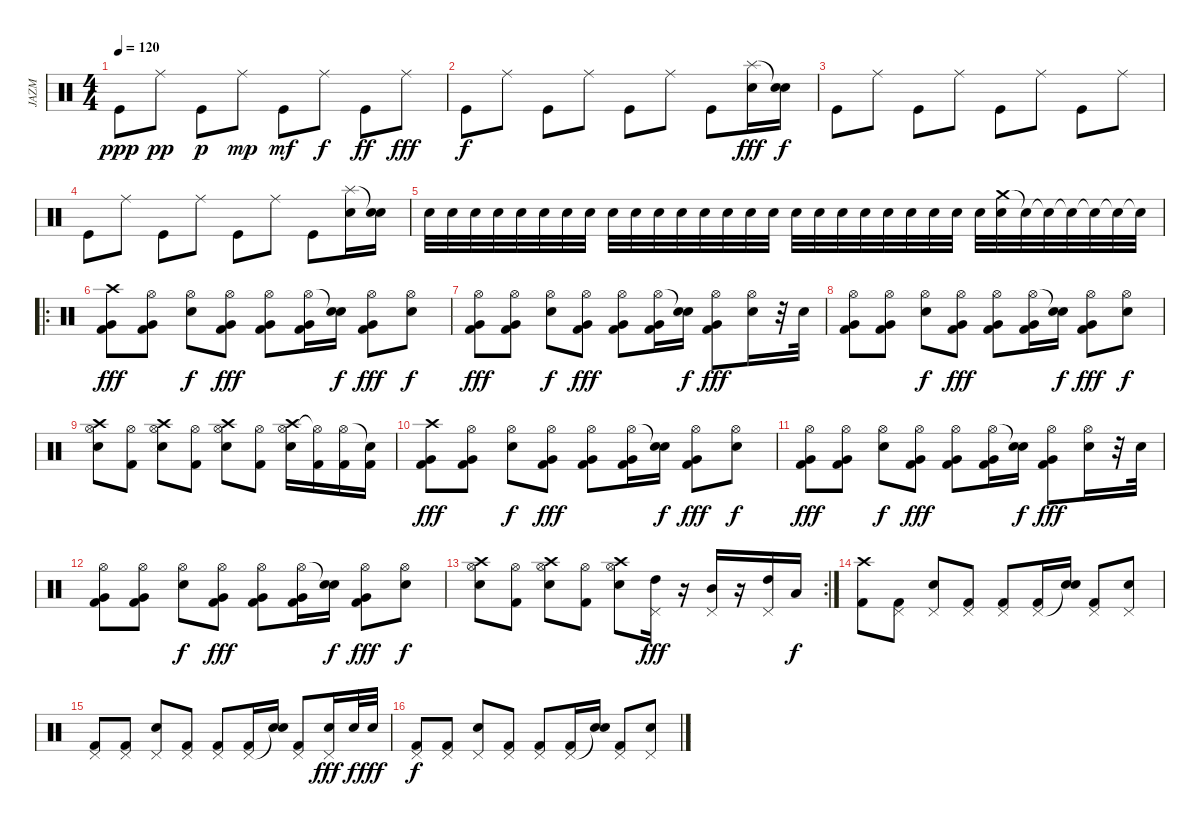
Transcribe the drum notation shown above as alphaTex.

\track ("JAZM" "JAZM") {instrument percussion}
\staff {score}
\articulation defaults
\ts (4 4)
\tempo 120
\clef neutral
\ks c "Kick (hit)".8{dy ppp} "Ride (middle)".8{dy pp} "Kick (hit)".8{dy p} "Ride (middle)".8{dy mp} "Kick (hit)".8{dy mf} "Ride (middle)".8{dy f} "Kick (hit)".8{dy ff} "Ride (middle)".8{dy fff}
|
"Kick (hit)".8{dy f} "Ride (middle)".8 "Kick (hit)".8 "Ride (middle)".8 "Kick (hit)".8 "Ride (middle)".8 "Kick (hit)".8 ("Splash (hit)" "Snare (hit) 2").16{dy fff} ("Snare (hit)"{t} "Snare (hit) 2").16{dy f} |
"Kick (hit)".8 "Ride (middle)".8 "Kick (hit)".8 "Ride (middle)".8 "Kick (hit)".8 "Ride (middle)".8 "Kick (hit)".8 "Ride (middle)".8 |
"Kick (hit)".8 "Ride (middle)".8 "Kick (hit)".8 "Ride (middle)".8 "Kick (hit)".8 "Ride (middle)".8 "Kick (hit)".8 ("Splash (hit)" "Snare (hit) 2").16 ("Snare (hit)"{t} "Snare (hit) 2").16 |
"Snare (hit) 2".32 "Snare (hit) 2".32 "Snare (hit) 2".32 "Snare (hit) 2".32 "Snare (hit) 2".32 "Snare (hit) 2".32 "Snare (hit) 2".32 "Snare (hit) 2".32 "Snare (hit) 2".32 "Snare (hit) 2".32 "Snare (hit) 2".32 "Snare (hit) 2".32 "Snare (hit) 2".32 "Snare (hit) 2".32 "Snare (hit) 2".32 "Snare (hit) 2".32 "Snare (hit) 2".32 "Snare (hit) 2".32 "Snare (hit) 2".32 "Snare (hit) 2".32 "Snare (hit) 2".32 "Snare (hit) 2".32 "Snare (hit) 2".32 "Snare (hit) 2".32 "Snare (hit) 2".32 ("Crash medium (hit)" "Snare (hit) 2").32 "Snare (hit)"{t}.32 "Snare (hit)"{t}.32 "Snare (hit)"{t}.32 "Snare (hit)"{t}.32 "Snare (hit)"{t}.32 "Snare (hit)"{t}.32 |
\ro
("Crash high (hit)" "Very Low Tom (hit)" "Kick (hit) 2").8{dy fff} ("Hi-Hat (open)" "Very Low Tom (hit)" "Kick (hit) 2").8 ("Hi-Hat (open)" "Electric Snare (hit)").8{dy f} ("Hi-Hat (open)" "Very Low Tom (hit)" "Kick (hit) 2").8{dy fff} ("Hi-Hat (open)" "Very Low Tom (hit)" "Kick (hit) 2").8 ("Hi-Hat (open)" "Very Low Tom (hit)" "Kick (hit) 2").16 ("Snare (hit)"{t} "Electric Snare (hit)").16{dy f} ("Hi-Hat (open)" "Very Low Tom (hit)" "Kick (hit) 2").8{dy fff} ("Hi-Hat (open)" "Electric Snare (hit)").8{dy f} |
("Hi-Hat (open)" "Very Low Tom (hit)" "Kick (hit) 2").8{dy fff} ("Hi-Hat (open)" "Very Low Tom (hit)" "Kick (hit) 2").8 ("Hi-Hat (open)" "Electric Snare (hit)").8{dy f} ("Hi-Hat (open)" "Very Low Tom (hit)" "Kick (hit) 2").8{dy fff} ("Hi-Hat (open)" "Very Low Tom (hit)" "Kick (hit) 2").8 ("Hi-Hat (open)" "Very Low Tom (hit)" "Kick (hit) 2").16 ("Snare (hit)"{t} "Electric Snare (hit)").16{dy f} ("Hi-Hat (open)" "Very Low Tom (hit)" "Kick (hit) 2").8{dy fff} ("Hi-Hat (open)" "Electric Snare (hit)").16 r.32 "Electric Snare (hit)".32 |
("Hi-Hat (open)" "Very Low Tom (hit)" "Kick (hit) 2").8 ("Hi-Hat (open)" "Very Low Tom (hit)" "Kick (hit) 2").8 ("Hi-Hat (open)" "Electric Snare (hit)").8{dy f} ("Hi-Hat (open)" "Very Low Tom (hit)" "Kick (hit) 2").8{dy fff} ("Hi-Hat (open)" "Very Low Tom (hit)" "Kick (hit) 2").8 ("Hi-Hat (open)" "Very Low Tom (hit)" "Kick (hit) 2").16 ("Snare (hit)"{t} "Electric Snare (hit)").16{dy f} ("Hi-Hat (open)" "Very Low Tom (hit)" "Kick (hit) 2").8{dy fff} ("Hi-Hat (open)" "Electric Snare (hit)").8{dy f} |
("Hi-Hat (open)" "Crash high (hit)" "Electric Snare (hit)").8 ("Hi-Hat (open)" "Kick (hit) 2").8 ("Hi-Hat (open)" "Crash high (hit)" "Electric Snare (hit)").8 ("Hi-Hat (open)" "Kick (hit) 2").8 ("Hi-Hat (open)" "Crash high (hit)" "Electric Snare (hit)").8 ("Hi-Hat (open)" "Kick (hit) 2").8 ("Hi-Hat (open)" "Crash high (hit)" "Electric Snare (hit)").16 ("Hi-Hat (open)"{t} "Kick (hit) 2").16 ("Hi-Hat (open)" "Kick (hit) 2").16 ("Snare (hit)"{t} "Kick (hit) 2").16 |
("Crash high (hit)" "Very Low Tom (hit)" "Kick (hit) 2").8{dy fff} ("Hi-Hat (open)" "Very Low Tom (hit)" "Kick (hit) 2").8 ("Hi-Hat (open)" "Electric Snare (hit)").8{dy f} ("Hi-Hat (open)" "Very Low Tom (hit)" "Kick (hit) 2").8{dy fff} ("Hi-Hat (open)" "Very Low Tom (hit)" "Kick (hit) 2").8 ("Hi-Hat (open)" "Very Low Tom (hit)" "Kick (hit) 2").16 ("Snare (hit)"{t} "Electric Snare (hit)").16{dy f} ("Hi-Hat (open)" "Very Low Tom (hit)" "Kick (hit) 2").8{dy fff} ("Hi-Hat (open)" "Electric Snare (hit)").8{dy f} |
("Hi-Hat (open)" "Very Low Tom (hit)" "Kick (hit) 2").8{dy fff} ("Hi-Hat (open)" "Very Low Tom (hit)" "Kick (hit) 2").8 ("Hi-Hat (open)" "Electric Snare (hit)").8{dy f} ("Hi-Hat (open)" "Very Low Tom (hit)" "Kick (hit) 2").8{dy fff} ("Hi-Hat (open)" "Very Low Tom (hit)" "Kick (hit) 2").8 ("Hi-Hat (open)" "Very Low Tom (hit)" "Kick (hit) 2").16 ("Snare (hit)"{t} "Electric Snare (hit)").16{dy f} ("Hi-Hat (open)" "Very Low Tom (hit)" "Kick (hit) 2").8{dy fff} ("Hi-Hat (open)" "Electric Snare (hit)").16 r.32 "Electric Snare (hit)".32 |
("Hi-Hat (open)" "Very Low Tom (hit)" "Kick (hit) 2").8 ("Hi-Hat (open)" "Very Low Tom (hit)" "Kick (hit) 2").8 ("Hi-Hat (open)" "Electric Snare (hit)").8{dy f} ("Hi-Hat (open)" "Very Low Tom (hit)" "Kick (hit) 2").8{dy fff} ("Hi-Hat (open)" "Very Low Tom (hit)" "Kick (hit) 2").8 ("Hi-Hat (open)" "Very Low Tom (hit)" "Kick (hit) 2").16 ("Snare (hit)"{t} "Electric Snare (hit)").16{dy f} ("Hi-Hat (open)" "Very Low Tom (hit)" "Kick (hit) 2").8{dy fff} ("Hi-Hat (open)" "Electric Snare (hit)").8{dy f} |
\rc 2
("Hi-Hat (open)" "Crash high (hit)" "Electric Snare (hit)").8 ("Hi-Hat (open)" "Kick (hit) 2").8 ("Hi-Hat (open)" "Crash high (hit)" "Electric Snare (hit)").8 ("Hi-Hat (open)" "Kick (hit) 2").8 ("Hi-Hat (open)" "Crash high (hit)" "Electric Snare (hit)").8 ("Pedal Hi-Hat (hit)" "High Tom (hit)").16{dy fff} r.16 ("Pedal Hi-Hat (hit)" "Mid Tom (hit)").16 r.16 ("Pedal Hi-Hat (hit)" "High Tom (hit)").16 "Low Tom (hit)".16{dy f} |
("Crash high (hit)" "Kick (hit) 2").8 ("Pedal Hi-Hat (hit)" "Kick (hit) 2").8 ("Pedal Hi-Hat (hit)" "Electric Snare (hit)").8 ("Pedal Hi-Hat (hit)" "Kick (hit) 2").8 ("Pedal Hi-Hat (hit)" "Kick (hit) 2").8 ("Pedal Hi-Hat (hit)" "Kick (hit) 2").16 ("Snare (hit)"{t} "Electric Snare (hit)").16 ("Pedal Hi-Hat (hit)" "Kick (hit) 2").8 ("Pedal Hi-Hat (hit)" "Electric Snare (hit)").8 |
("Pedal Hi-Hat (hit)" "Kick (hit) 2").8 ("Pedal Hi-Hat (hit)" "Kick (hit) 2").8 ("Pedal Hi-Hat (hit)" "Electric Snare (hit)").8 ("Pedal Hi-Hat (hit)" "Kick (hit) 2").8 ("Pedal Hi-Hat (hit)" "Kick (hit) 2").8 ("Pedal Hi-Hat (hit)" "Kick (hit) 2").16 ("Snare (hit)"{t} "Electric Snare (hit)").16 ("Pedal Hi-Hat (hit)" "Kick (hit) 2").8 ("Pedal Hi-Hat (hit)" "Electric Snare (hit)").16{dy fff} "Electric Snare (hit)".32{dy f} "Electric Snare (hit)".32{dy fff} |
("Pedal Hi-Hat (hit)" "Kick (hit) 2").8{dy f} ("Pedal Hi-Hat (hit)" "Kick (hit) 2").8 ("Pedal Hi-Hat (hit)" "Electric Snare (hit)").8 ("Pedal Hi-Hat (hit)" "Kick (hit) 2").8 ("Pedal Hi-Hat (hit)" "Kick (hit) 2").8 ("Pedal Hi-Hat (hit)" "Kick (hit) 2").16 ("Snare (hit)"{t} "Electric Snare (hit)").16 ("Pedal Hi-Hat (hit)" "Kick (hit) 2").8 ("Pedal Hi-Hat (hit)" "Electric Snare (hit)").8
